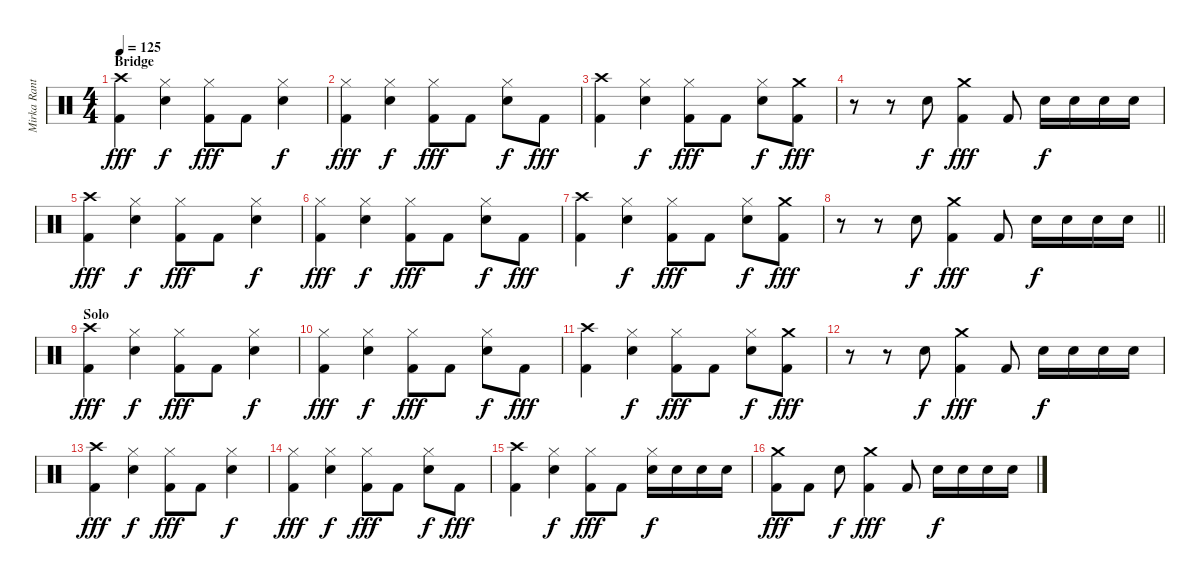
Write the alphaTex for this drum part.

\track ("Mirka Rantanen (Thunderstone)" "Mirka Rant") {instrument percussion}
\staff {score}
\articulation defaults
\ts (4 4)
\section ("" "Bridge")
\tempo 125
\clef neutral
\ks c
("Crash high (hit)" "Kick (hit) 2").4{dy fff} ("Hi-Hat (closed)" "Electric Snare (hit)").4{dy f} ("Hi-Hat (closed)" "Kick (hit) 2").8{dy fff} "Kick (hit) 2".8 ("Hi-Hat (closed)" "Electric Snare (hit)").4{dy f} |
("Hi-Hat (closed)" "Kick (hit) 2").4{dy fff} ("Hi-Hat (closed)" "Electric Snare (hit)").4{dy f} ("Hi-Hat (closed)" "Kick (hit) 2").8{dy fff} "Kick (hit) 2".8 ("Hi-Hat (closed)" "Electric Snare (hit)").8{dy f} "Kick (hit) 2".8{dy fff} |
("Crash high (hit)" "Kick (hit) 2").4 ("Hi-Hat (closed)" "Electric Snare (hit)").4{dy f} ("Hi-Hat (closed)" "Kick (hit) 2").8{dy fff} "Kick (hit) 2".8 ("Hi-Hat (closed)" "Electric Snare (hit)").8{dy f} ("Crash medium (hit)" "Kick (hit) 2").8{dy fff} |
r.8 r.8 "Electric Snare (hit)".8{dy f} ("Crash medium (hit)" "Kick (hit) 2").4{dy fff} "Kick (hit) 2".8 "Electric Snare (hit)".16{dy f} "Electric Snare (hit)".16 "Electric Snare (hit)".16 "Electric Snare (hit)".16 |
("Crash high (hit)" "Kick (hit) 2").4{dy fff} ("Hi-Hat (closed)" "Electric Snare (hit)").4{dy f} ("Hi-Hat (closed)" "Kick (hit) 2").8{dy fff} "Kick (hit) 2".8 ("Hi-Hat (closed)" "Electric Snare (hit)").4{dy f} |
("Hi-Hat (closed)" "Kick (hit) 2").4{dy fff} ("Hi-Hat (closed)" "Electric Snare (hit)").4{dy f} ("Hi-Hat (closed)" "Kick (hit) 2").8{dy fff} "Kick (hit) 2".8 ("Hi-Hat (closed)" "Electric Snare (hit)").8{dy f} "Kick (hit) 2".8{dy fff} |
("Crash high (hit)" "Kick (hit) 2").4 ("Hi-Hat (closed)" "Electric Snare (hit)").4{dy f} ("Hi-Hat (closed)" "Kick (hit) 2").8{dy fff} "Kick (hit) 2".8 ("Hi-Hat (closed)" "Electric Snare (hit)").8{dy f} ("Crash medium (hit)" "Kick (hit) 2").8{dy fff} |
\barLineRight lightlight
r.8 r.8 "Electric Snare (hit)".8{dy f} ("Crash medium (hit)" "Kick (hit) 2").4{dy fff} "Kick (hit) 2".8 "Electric Snare (hit)".16{dy f} "Electric Snare (hit)".16 "Electric Snare (hit)".16 "Electric Snare (hit)".16 |
\section ("" "Solo")
("Crash high (hit)" "Kick (hit) 2").4{dy fff} ("Hi-Hat (closed)" "Electric Snare (hit)").4{dy f} ("Hi-Hat (closed)" "Kick (hit) 2").8{dy fff} "Kick (hit) 2".8 ("Hi-Hat (closed)" "Electric Snare (hit)").4{dy f} |
("Hi-Hat (closed)" "Kick (hit) 2").4{dy fff} ("Hi-Hat (closed)" "Electric Snare (hit)").4{dy f} ("Hi-Hat (closed)" "Kick (hit) 2").8{dy fff} "Kick (hit) 2".8 ("Hi-Hat (closed)" "Electric Snare (hit)").8{dy f} "Kick (hit) 2".8{dy fff} |
("Crash high (hit)" "Kick (hit) 2").4 ("Hi-Hat (closed)" "Electric Snare (hit)").4{dy f} ("Hi-Hat (closed)" "Kick (hit) 2").8{dy fff} "Kick (hit) 2".8 ("Hi-Hat (closed)" "Electric Snare (hit)").8{dy f} ("Crash medium (hit)" "Kick (hit) 2").8{dy fff} |
r.8 r.8 "Electric Snare (hit)".8{dy f} ("Crash medium (hit)" "Kick (hit) 2").4{dy fff} "Kick (hit) 2".8 "Electric Snare (hit)".16{dy f} "Electric Snare (hit)".16 "Electric Snare (hit)".16 "Electric Snare (hit)".16 |
("Crash high (hit)" "Kick (hit) 2").4{dy fff} ("Hi-Hat (closed)" "Electric Snare (hit)").4{dy f} ("Hi-Hat (closed)" "Kick (hit) 2").8{dy fff} "Kick (hit) 2".8 ("Hi-Hat (closed)" "Electric Snare (hit)").4{dy f} |
("Hi-Hat (closed)" "Kick (hit) 2").4{dy fff} ("Hi-Hat (closed)" "Electric Snare (hit)").4{dy f} ("Hi-Hat (closed)" "Kick (hit) 2").8{dy fff} "Kick (hit) 2".8 ("Hi-Hat (closed)" "Electric Snare (hit)").8{dy f} "Kick (hit) 2".8{dy fff} |
("Crash high (hit)" "Kick (hit) 2").4 ("Hi-Hat (closed)" "Electric Snare (hit)").4{dy f} ("Hi-Hat (closed)" "Kick (hit) 2").8{dy fff} "Kick (hit) 2".8 ("Hi-Hat (closed)" "Electric Snare (hit)").16{dy f} "Electric Snare (hit)".16 "Electric Snare (hit)".16 "Electric Snare (hit)".16 |
("Crash medium (hit)" "Kick (hit) 2").8{dy fff} "Kick (hit) 2".8 "Electric Snare (hit)".8{dy f} ("Crash medium (hit)" "Kick (hit) 2").4{dy fff} "Kick (hit) 2".8 "Electric Snare (hit)".16{dy f} "Electric Snare (hit)".16 "Electric Snare (hit)".16 "Electric Snare (hit)".16
